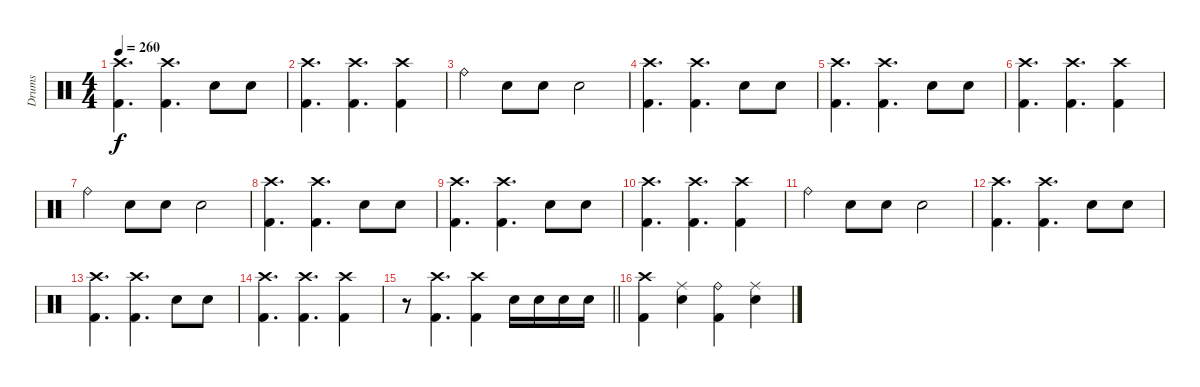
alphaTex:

\track ("Drums" "Drums") {instrument percussion}
\staff {score}
\articulation defaults
\ts (4 4)
\tempo 260
\clef neutral
\ks c
("Crash high (hit)" "Kick (hit) 2").4{d dy f} ("Crash high (hit)" "Kick (hit) 2").4{d} "Electric Snare (hit)".8 "Electric Snare (hit)".8 |
("Crash high (hit)" "Kick (hit) 2").4{d} ("Crash high (hit)" "Kick (hit) 2").4{d} ("Crash high (hit)" "Kick (hit) 2").4 |
"Ride (bell)".4 "Electric Snare (hit)".8 "Electric Snare (hit)".8 "Electric Snare (hit)".2 |
("Crash high (hit)" "Kick (hit) 2").4{d} ("Crash high (hit)" "Kick (hit) 2").4{d} "Electric Snare (hit)".8 "Electric Snare (hit)".8 |
("Crash high (hit)" "Kick (hit) 2").4{d} ("Crash high (hit)" "Kick (hit) 2").4{d} "Electric Snare (hit)".8 "Electric Snare (hit)".8 |
("Crash high (hit)" "Kick (hit) 2").4{d} ("Crash high (hit)" "Kick (hit) 2").4{d} ("Crash high (hit)" "Kick (hit) 2").4 |
"Ride (bell)".4 "Electric Snare (hit)".8 "Electric Snare (hit)".8 "Electric Snare (hit)".2 |
("Crash high (hit)" "Kick (hit) 2").4{d} ("Crash high (hit)" "Kick (hit) 2").4{d} "Electric Snare (hit)".8 "Electric Snare (hit)".8 |
("Crash high (hit)" "Kick (hit) 2").4{d} ("Crash high (hit)" "Kick (hit) 2").4{d} "Electric Snare (hit)".8 "Electric Snare (hit)".8 |
("Crash high (hit)" "Kick (hit) 2").4{d} ("Crash high (hit)" "Kick (hit) 2").4{d} ("Crash high (hit)" "Kick (hit) 2").4 |
"Ride (bell)".4 "Electric Snare (hit)".8 "Electric Snare (hit)".8 "Electric Snare (hit)".2 |
("Crash high (hit)" "Kick (hit) 2").4{d} ("Crash high (hit)" "Kick (hit) 2").4{d} "Electric Snare (hit)".8 "Electric Snare (hit)".8 |
("Crash high (hit)" "Kick (hit) 2").4{d} ("Crash high (hit)" "Kick (hit) 2").4{d} "Electric Snare (hit)".8 "Electric Snare (hit)".8 |
("Crash high (hit)" "Kick (hit) 2").4{d} ("Crash high (hit)" "Kick (hit) 2").4{d} ("Crash high (hit)" "Kick (hit) 2").4 |
\barLineRight lightlight
r.8 ("Crash high (hit)" "Kick (hit) 2").4{d} ("Crash high (hit)" "Kick (hit) 2").4 "Electric Snare (hit)".16 "Electric Snare (hit)".16 "Electric Snare (hit)".16 "Electric Snare (hit)".16 |
("Crash high (hit)" "Kick (hit) 2").4 ("Ride (middle)" "Electric Snare (hit)").4 ("Ride (bell)" "Kick (hit) 2").4 ("Ride (middle)" "Electric Snare (hit)").4
